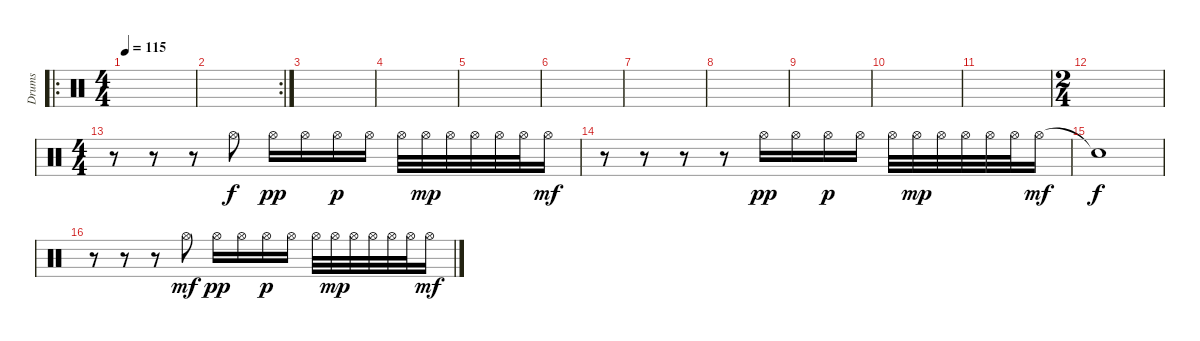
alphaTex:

\track ("Drums" "Drums") {instrument percussion}
\staff {score}
\articulation defaults
\ro
\ts (4 4)
\tempo 115
\clef neutral
\ks c
|
\rc 2
|
|
|
|
|
|
|
|
|
|
\ts (2 4)
|
\ts (4 4)
r.8 r.8 r.8 "Hi-Hat (open)".8 "Hi-Hat (open)".16{dy pp} "Hi-Hat (open)".16 "Hi-Hat (open)".16{dy p} "Hi-Hat (open)".16 "Hi-Hat (open)".32 "Hi-Hat (open)".32{dy mp} "Hi-Hat (open)".32 "Hi-Hat (open)".32 "Hi-Hat (open)".32 "Hi-Hat (open)".32 "Hi-Hat (open)".16{dy mf} |
r.8 r.8 r.8 r.8 "Hi-Hat (open)".16{dy pp} "Hi-Hat (open)".16 "Hi-Hat (open)".16{dy p} "Hi-Hat (open)".16 "Hi-Hat (open)".32 "Hi-Hat (open)".32{dy mp} "Hi-Hat (open)".32 "Hi-Hat (open)".32 "Hi-Hat (open)".32 "Hi-Hat (open)".32 "Hi-Hat (open)".16{dy mf} |
"Snare (hit)"{t}.1{dy f} |
r.8 r.8 r.8 "Hi-Hat (open)".8{dy mf} "Hi-Hat (open)".16{dy pp} "Hi-Hat (open)".16 "Hi-Hat (open)".16{dy p} "Hi-Hat (open)".16 "Hi-Hat (open)".32 "Hi-Hat (open)".32{dy mp} "Hi-Hat (open)".32 "Hi-Hat (open)".32 "Hi-Hat (open)".32 "Hi-Hat (open)".32 "Hi-Hat (open)".16{dy mf}
